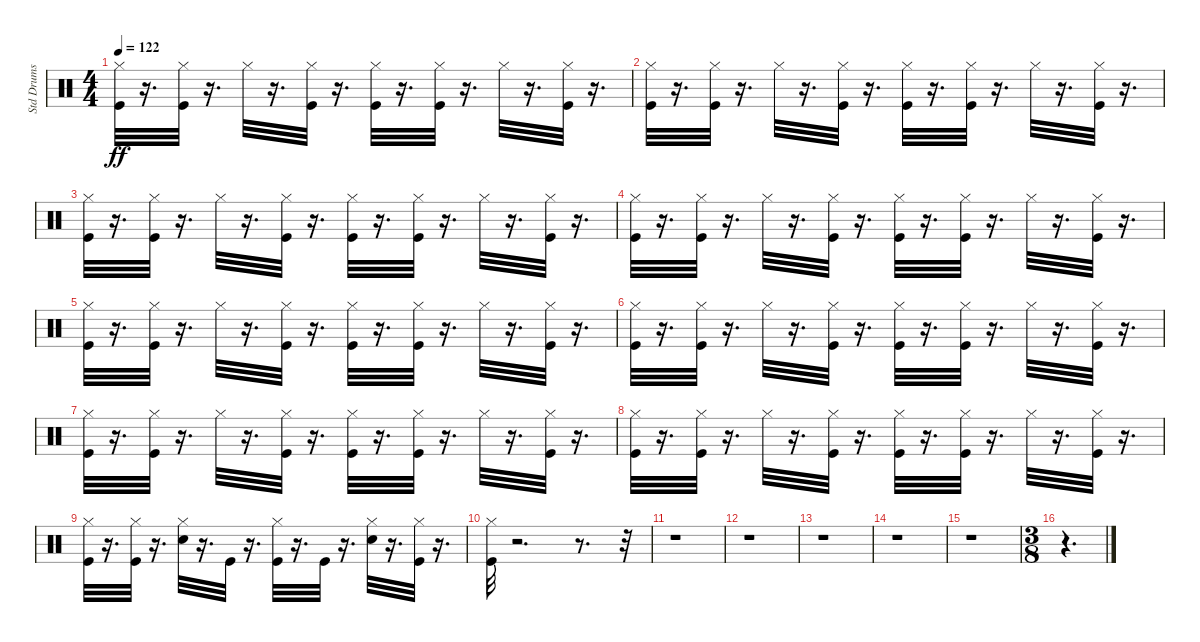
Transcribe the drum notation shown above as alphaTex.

\track ("Std Drums" "Std Drums") {instrument percussion}
\staff {score}
\articulation defaults
\ts (4 4)
\tempo 122
\clef neutral
\ks c
("Kick (hit)" "Hi-Hat (closed)").32{dy ff} r.16{d} ("Kick (hit)" "Hi-Hat (closed)").32 r.16{d} "Hi-Hat (closed)".32 r.16{d} ("Hi-Hat (closed)" "Kick (hit)").32 r.16{d} ("Kick (hit)" "Hi-Hat (closed)").32 r.16{d} ("Hi-Hat (closed)" "Kick (hit)").32 r.16{d} "Hi-Hat (closed)".32 r.16{d} ("Hi-Hat (closed)" "Kick (hit)").32 r.16{d} |
("Kick (hit)" "Hi-Hat (closed)").32 r.16{d} ("Kick (hit)" "Hi-Hat (closed)").32 r.16{d} "Hi-Hat (closed)".32 r.16{d} ("Hi-Hat (closed)" "Kick (hit)").32 r.16{d} ("Hi-Hat (closed)" "Kick (hit)").32 r.16{d} ("Hi-Hat (closed)" "Kick (hit)").32 r.16{d} "Hi-Hat (closed)".32 r.16{d} ("Hi-Hat (closed)" "Kick (hit)").32 r.16{d} |
("Hi-Hat (closed)" "Kick (hit)").32 r.16{d} ("Hi-Hat (closed)" "Kick (hit)").32 r.16{d} "Hi-Hat (closed)".32 r.16{d} ("Kick (hit)" "Hi-Hat (closed)").32 r.16{d} ("Hi-Hat (closed)" "Kick (hit)").32 r.16{d} ("Hi-Hat (closed)" "Kick (hit)").32 r.16{d} "Hi-Hat (closed)".32 r.16{d} ("Kick (hit)" "Hi-Hat (closed)").32 r.16{d} |
("Kick (hit)" "Hi-Hat (closed)").32 r.16{d} ("Kick (hit)" "Hi-Hat (closed)").32 r.16{d} "Hi-Hat (closed)".32 r.16{d} ("Kick (hit)" "Hi-Hat (closed)").32 r.16{d} ("Kick (hit)" "Hi-Hat (closed)").32 r.16{d} ("Kick (hit)" "Hi-Hat (closed)").32 r.16{d} "Hi-Hat (closed)".32 r.16{d} ("Kick (hit)" "Hi-Hat (closed)").32 r.16{d} |
("Kick (hit)" "Hi-Hat (closed)").32 r.16{d} ("Hi-Hat (closed)" "Kick (hit)").32 r.16{d} "Hi-Hat (closed)".32 r.16{d} ("Hi-Hat (closed)" "Kick (hit)").32 r.16{d} ("Kick (hit)" "Hi-Hat (closed)").32 r.16{d} ("Hi-Hat (closed)" "Kick (hit)").32 r.16{d} "Hi-Hat (closed)".32 r.16{d} ("Hi-Hat (closed)" "Kick (hit)").32 r.16{d} |
("Kick (hit)" "Hi-Hat (closed)").32 r.16{d} ("Hi-Hat (closed)" "Kick (hit)").32 r.16{d} "Hi-Hat (closed)".32 r.16{d} ("Hi-Hat (closed)" "Kick (hit)").32 r.16{d} ("Hi-Hat (closed)" "Kick (hit)").32 r.16{d} ("Hi-Hat (closed)" "Kick (hit)").32 r.16{d} "Hi-Hat (closed)".32 r.16{d} ("Kick (hit)" "Hi-Hat (closed)").32 r.16{d} |
("Kick (hit)" "Hi-Hat (closed)").32 r.16{d} ("Hi-Hat (closed)" "Kick (hit)").32 r.16{d} "Hi-Hat (closed)".32 r.16{d} ("Hi-Hat (closed)" "Kick (hit)").32 r.16{d} ("Kick (hit)" "Hi-Hat (closed)").32 r.16{d} ("Hi-Hat (closed)" "Kick (hit)").32 r.16{d} "Hi-Hat (closed)".32 r.16{d} ("Hi-Hat (closed)" "Kick (hit)").32 r.16{d} |
("Hi-Hat (closed)" "Kick (hit)").32 r.16{d} ("Hi-Hat (closed)" "Kick (hit)").32 r.16{d} "Hi-Hat (closed)".32 r.16{d} ("Kick (hit)" "Hi-Hat (closed)").32 r.16{d} ("Kick (hit)" "Hi-Hat (closed)").32 r.16{d} ("Kick (hit)" "Hi-Hat (closed)").32 r.16{d} "Hi-Hat (closed)".32 r.16{d} ("Kick (hit)" "Hi-Hat (closed)").32 r.16{d} |
("Hi-Hat (closed)" "Kick (hit)").32 r.16{d} ("Hi-Hat (closed)" "Kick (hit)").32 r.16{d} ("Snare (hit) 2" "Hi-Hat (closed)").32 r.16{d} "Kick (hit)".32 r.16{d} ("Hi-Hat (closed)" "Kick (hit)").32 r.16{d} "Kick (hit)".32 r.16{d} ("Snare (hit) 2" "Hi-Hat (closed)").32 r.16{d} ("Hi-Hat (closed)" "Kick (hit)").32 r.16{d} |
("Kick (hit)" "Hi-Hat (closed)").32 r.2{d} r.8{d} r.32 |
r.1 |
r.1 |
r.1 |
r.1 |
r.1 |
\ts (3 8)
r.4{d}
